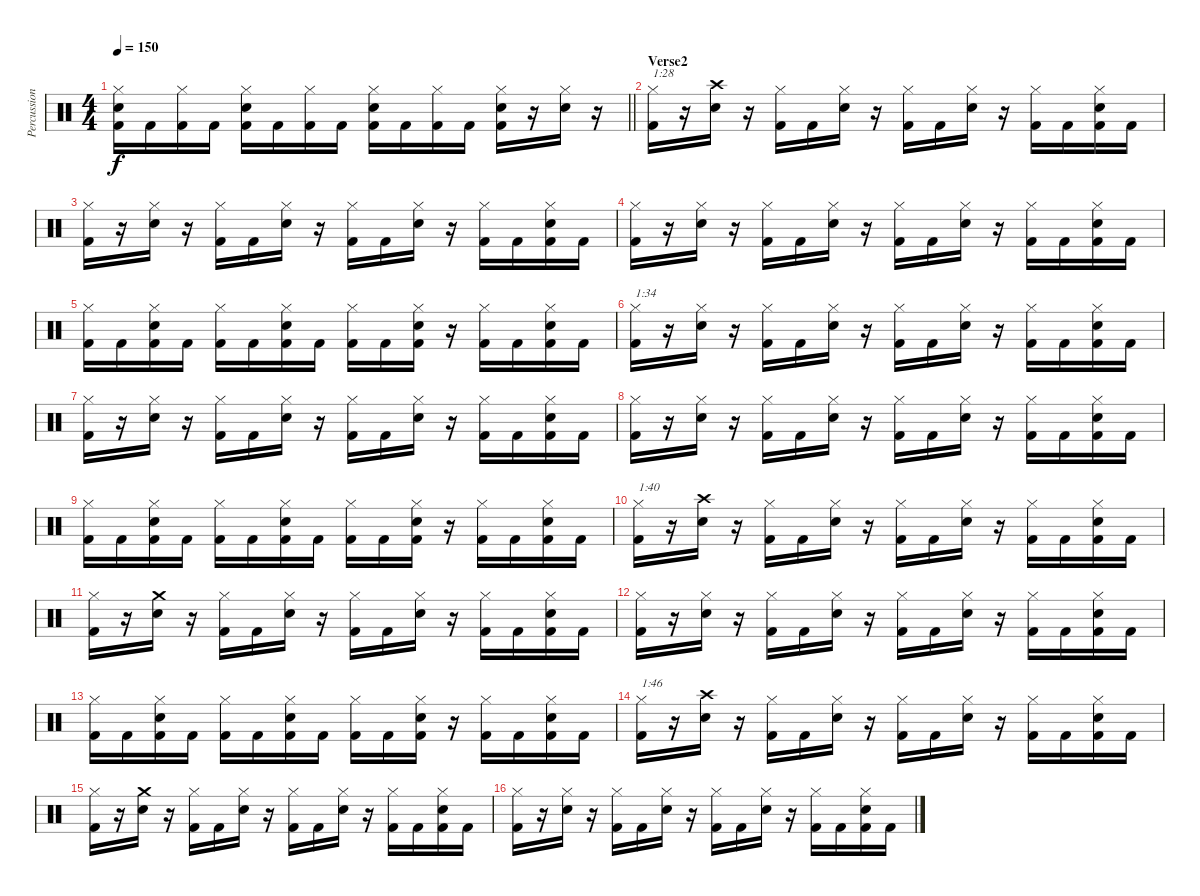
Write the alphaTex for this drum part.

\track ("Percussion" "Percussion") {instrument percussion}
\staff {score}
\articulation defaults
\ts (4 4)
\tempo 150
\clef neutral
\barLineRight lightlight
\ks c
("Hi-Hat (closed)" "Electric Snare (hit)" "Kick (hit) 2").16{dy f} "Kick (hit) 2".16 ("Hi-Hat (closed)" "Kick (hit) 2").16 "Kick (hit) 2".16 ("Hi-Hat (closed)" "Electric Snare (hit)" "Kick (hit) 2").16 "Kick (hit) 2".16 ("Hi-Hat (closed)" "Kick (hit) 2").16 "Kick (hit) 2".16 ("Hi-Hat (closed)" "Electric Snare (hit)" "Kick (hit) 2").16 "Kick (hit) 2".16 ("Hi-Hat (closed)" "Kick (hit) 2").16 "Kick (hit) 2".16 ("Hi-Hat (closed)" "Electric Snare (hit)" "Kick (hit) 2").16 r.16 ("Hi-Hat (closed)" "Electric Snare (hit)").16 r.16 |
\section ("" "Verse2")
("Hi-Hat (closed)" "Kick (hit) 2").16{txt "1:28"} r.16 ("Crash high (hit)" "Electric Snare (hit)").16 r.16 ("Hi-Hat (closed)" "Kick (hit) 2").16 "Kick (hit) 2".16 ("Hi-Hat (closed)" "Electric Snare (hit)").16 r.16 ("Hi-Hat (closed)" "Kick (hit) 2").16 "Kick (hit) 2".16 ("Hi-Hat (closed)" "Electric Snare (hit)").16 r.16 ("Hi-Hat (closed)" "Kick (hit) 2").16 "Kick (hit) 2".16 ("Hi-Hat (closed)" "Electric Snare (hit)" "Kick (hit) 2").16 "Kick (hit) 2".16 |
("Hi-Hat (closed)" "Kick (hit) 2").16 r.16 ("Hi-Hat (closed)" "Electric Snare (hit)").16 r.16 ("Hi-Hat (closed)" "Kick (hit) 2").16 "Kick (hit) 2".16 ("Hi-Hat (closed)" "Electric Snare (hit)").16 r.16 ("Hi-Hat (closed)" "Kick (hit) 2").16 "Kick (hit) 2".16 ("Hi-Hat (closed)" "Electric Snare (hit)").16 r.16 ("Hi-Hat (closed)" "Kick (hit) 2").16 "Kick (hit) 2".16 ("Hi-Hat (closed)" "Electric Snare (hit)" "Kick (hit) 2").16 "Kick (hit) 2".16 |
("Hi-Hat (closed)" "Kick (hit) 2").16 r.16 ("Hi-Hat (closed)" "Electric Snare (hit)").16 r.16 ("Hi-Hat (closed)" "Kick (hit) 2").16 "Kick (hit) 2".16 ("Hi-Hat (closed)" "Electric Snare (hit)").16 r.16 ("Hi-Hat (closed)" "Kick (hit) 2").16 "Kick (hit) 2".16 ("Hi-Hat (closed)" "Electric Snare (hit)").16 r.16 ("Hi-Hat (closed)" "Kick (hit) 2").16 "Kick (hit) 2".16 ("Hi-Hat (closed)" "Electric Snare (hit)" "Kick (hit) 2").16 "Kick (hit) 2".16 |
("Hi-Hat (closed)" "Kick (hit) 2").16 "Kick (hit) 2".16 ("Hi-Hat (closed)" "Electric Snare (hit)" "Kick (hit) 2").16 "Kick (hit) 2".16 ("Hi-Hat (closed)" "Kick (hit) 2").16 "Kick (hit) 2".16 ("Hi-Hat (closed)" "Electric Snare (hit)" "Kick (hit) 2").16 "Kick (hit) 2".16 ("Hi-Hat (closed)" "Kick (hit) 2").16 "Kick (hit) 2".16 ("Hi-Hat (closed)" "Electric Snare (hit)" "Kick (hit) 2").16 r.16 ("Hi-Hat (closed)" "Kick (hit) 2").16 "Kick (hit) 2".16 ("Hi-Hat (closed)" "Electric Snare (hit)" "Kick (hit) 2").16 "Kick (hit) 2".16 |
("Hi-Hat (closed)" "Kick (hit) 2").16{txt "1:34"} r.16 ("Hi-Hat (closed)" "Electric Snare (hit)").16 r.16 ("Hi-Hat (closed)" "Kick (hit) 2").16 "Kick (hit) 2".16 ("Hi-Hat (closed)" "Electric Snare (hit)").16 r.16 ("Hi-Hat (closed)" "Kick (hit) 2").16 "Kick (hit) 2".16 ("Hi-Hat (closed)" "Electric Snare (hit)").16 r.16 ("Hi-Hat (closed)" "Kick (hit) 2").16 "Kick (hit) 2".16 ("Hi-Hat (closed)" "Electric Snare (hit)" "Kick (hit) 2").16 "Kick (hit) 2".16 |
("Hi-Hat (closed)" "Kick (hit) 2").16 r.16 ("Hi-Hat (closed)" "Electric Snare (hit)").16 r.16 ("Hi-Hat (closed)" "Kick (hit) 2").16 "Kick (hit) 2".16 ("Hi-Hat (closed)" "Electric Snare (hit)").16 r.16 ("Hi-Hat (closed)" "Kick (hit) 2").16 "Kick (hit) 2".16 ("Hi-Hat (closed)" "Electric Snare (hit)").16 r.16 ("Hi-Hat (closed)" "Kick (hit) 2").16 "Kick (hit) 2".16 ("Hi-Hat (closed)" "Electric Snare (hit)" "Kick (hit) 2").16 "Kick (hit) 2".16 |
("Hi-Hat (closed)" "Kick (hit) 2").16 r.16 ("Hi-Hat (closed)" "Electric Snare (hit)").16 r.16 ("Hi-Hat (closed)" "Kick (hit) 2").16 "Kick (hit) 2".16 ("Hi-Hat (closed)" "Electric Snare (hit)").16 r.16 ("Hi-Hat (closed)" "Kick (hit) 2").16 "Kick (hit) 2".16 ("Hi-Hat (closed)" "Electric Snare (hit)").16 r.16 ("Hi-Hat (closed)" "Kick (hit) 2").16 "Kick (hit) 2".16 ("Hi-Hat (closed)" "Electric Snare (hit)" "Kick (hit) 2").16 "Kick (hit) 2".16 |
("Hi-Hat (closed)" "Kick (hit) 2").16 "Kick (hit) 2".16 ("Hi-Hat (closed)" "Electric Snare (hit)" "Kick (hit) 2").16 "Kick (hit) 2".16 ("Hi-Hat (closed)" "Kick (hit) 2").16 "Kick (hit) 2".16 ("Hi-Hat (closed)" "Electric Snare (hit)" "Kick (hit) 2").16 "Kick (hit) 2".16 ("Hi-Hat (closed)" "Kick (hit) 2").16 "Kick (hit) 2".16 ("Hi-Hat (closed)" "Electric Snare (hit)" "Kick (hit) 2").16 r.16 ("Hi-Hat (closed)" "Kick (hit) 2").16 "Kick (hit) 2".16 ("Hi-Hat (closed)" "Electric Snare (hit)" "Kick (hit) 2").16 "Kick (hit) 2".16 |
("Hi-Hat (closed)" "Kick (hit) 2").16{txt "1:40"} r.16 ("Crash high (hit)" "Electric Snare (hit)").16 r.16 ("Hi-Hat (closed)" "Kick (hit) 2").16 "Kick (hit) 2".16 ("Hi-Hat (closed)" "Electric Snare (hit)").16 r.16 ("Hi-Hat (closed)" "Kick (hit) 2").16 "Kick (hit) 2".16 ("Hi-Hat (closed)" "Electric Snare (hit)").16 r.16 ("Hi-Hat (closed)" "Kick (hit) 2").16 "Kick (hit) 2".16 ("Hi-Hat (closed)" "Electric Snare (hit)" "Kick (hit) 2").16 "Kick (hit) 2".16 |
("Hi-Hat (closed)" "Kick (hit) 2").16 r.16 ("Crash medium (hit)" "Electric Snare (hit)").16 r.16 ("Hi-Hat (closed)" "Kick (hit) 2").16 "Kick (hit) 2".16 ("Hi-Hat (closed)" "Electric Snare (hit)").16 r.16 ("Hi-Hat (closed)" "Kick (hit) 2").16 "Kick (hit) 2".16 ("Hi-Hat (closed)" "Electric Snare (hit)").16 r.16 ("Hi-Hat (closed)" "Kick (hit) 2").16 "Kick (hit) 2".16 ("Hi-Hat (closed)" "Electric Snare (hit)" "Kick (hit) 2").16 "Kick (hit) 2".16 |
("Hi-Hat (closed)" "Kick (hit) 2").16 r.16 ("Hi-Hat (closed)" "Electric Snare (hit)").16 r.16 ("Hi-Hat (closed)" "Kick (hit) 2").16 "Kick (hit) 2".16 ("Hi-Hat (closed)" "Electric Snare (hit)").16 r.16 ("Hi-Hat (closed)" "Kick (hit) 2").16 "Kick (hit) 2".16 ("Hi-Hat (closed)" "Electric Snare (hit)").16 r.16 ("Hi-Hat (closed)" "Kick (hit) 2").16 "Kick (hit) 2".16 ("Hi-Hat (closed)" "Electric Snare (hit)" "Kick (hit) 2").16 "Kick (hit) 2".16 |
("Hi-Hat (closed)" "Kick (hit) 2").16 "Kick (hit) 2".16 ("Hi-Hat (closed)" "Electric Snare (hit)" "Kick (hit) 2").16 "Kick (hit) 2".16 ("Hi-Hat (closed)" "Kick (hit) 2").16 "Kick (hit) 2".16 ("Hi-Hat (closed)" "Electric Snare (hit)" "Kick (hit) 2").16 "Kick (hit) 2".16 ("Hi-Hat (closed)" "Kick (hit) 2").16 "Kick (hit) 2".16 ("Hi-Hat (closed)" "Electric Snare (hit)" "Kick (hit) 2").16 r.16 ("Hi-Hat (closed)" "Kick (hit) 2").16 "Kick (hit) 2".16 ("Hi-Hat (closed)" "Electric Snare (hit)" "Kick (hit) 2").16 "Kick (hit) 2".16 |
("Hi-Hat (closed)" "Kick (hit) 2").16{txt "1:46"} r.16 ("Crash high (hit)" "Electric Snare (hit)").16 r.16 ("Hi-Hat (closed)" "Kick (hit) 2").16 "Kick (hit) 2".16 ("Hi-Hat (closed)" "Electric Snare (hit)").16 r.16 ("Hi-Hat (closed)" "Kick (hit) 2").16 "Kick (hit) 2".16 ("Hi-Hat (closed)" "Electric Snare (hit)").16 r.16 ("Hi-Hat (closed)" "Kick (hit) 2").16 "Kick (hit) 2".16 ("Hi-Hat (closed)" "Electric Snare (hit)" "Kick (hit) 2").16 "Kick (hit) 2".16 |
("Hi-Hat (closed)" "Kick (hit) 2").16 r.16 ("Crash medium (hit)" "Electric Snare (hit)").16 r.16 ("Hi-Hat (closed)" "Kick (hit) 2").16 "Kick (hit) 2".16 ("Hi-Hat (closed)" "Electric Snare (hit)").16 r.16 ("Hi-Hat (closed)" "Kick (hit) 2").16 "Kick (hit) 2".16 ("Hi-Hat (closed)" "Electric Snare (hit)").16 r.16 ("Hi-Hat (closed)" "Kick (hit) 2").16 "Kick (hit) 2".16 ("Hi-Hat (closed)" "Electric Snare (hit)" "Kick (hit) 2").16 "Kick (hit) 2".16 |
("Hi-Hat (closed)" "Kick (hit) 2").16 r.16 ("Hi-Hat (closed)" "Electric Snare (hit)").16 r.16 ("Hi-Hat (closed)" "Kick (hit) 2").16 "Kick (hit) 2".16 ("Hi-Hat (closed)" "Electric Snare (hit)").16 r.16 ("Hi-Hat (closed)" "Kick (hit) 2").16 "Kick (hit) 2".16 ("Hi-Hat (closed)" "Electric Snare (hit)").16 r.16 ("Hi-Hat (closed)" "Kick (hit) 2").16 "Kick (hit) 2".16 ("Hi-Hat (closed)" "Electric Snare (hit)" "Kick (hit) 2").16 "Kick (hit) 2".16
